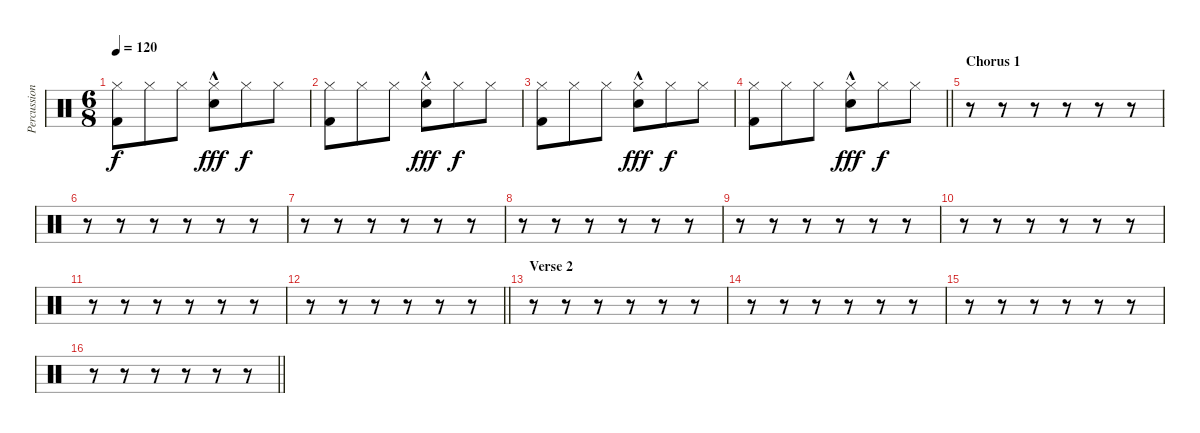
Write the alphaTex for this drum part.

\track ("Percussion" "Percussion") {mute instrument percussion}
\staff {score}
\articulation defaults
\ts (6 8)
\tempo 120
\clef neutral
\ks c
("Kick (hit) 2" "Hi-Hat (closed)").8{dy f} "Hi-Hat (closed)".8 "Hi-Hat (closed)".8 ("Snare (hit) 2"{hac} "Hi-Hat (closed)").8{dy fff} "Hi-Hat (closed)".8{dy f} "Hi-Hat (closed)".8 |
("Kick (hit) 2" "Hi-Hat (closed)").8 "Hi-Hat (closed)".8 "Hi-Hat (closed)".8 ("Snare (hit) 2"{hac} "Hi-Hat (closed)").8{dy fff} "Hi-Hat (closed)".8{dy f} "Hi-Hat (closed)".8 |
("Kick (hit) 2" "Hi-Hat (closed)").8 "Hi-Hat (closed)".8 "Hi-Hat (closed)".8 ("Snare (hit) 2"{hac} "Hi-Hat (closed)").8{dy fff} "Hi-Hat (closed)".8{dy f} "Hi-Hat (closed)".8 |
\barLineRight lightlight
("Kick (hit) 2" "Hi-Hat (closed)").8 "Hi-Hat (closed)".8 "Hi-Hat (closed)".8 ("Snare (hit) 2"{hac} "Hi-Hat (closed)").8{dy fff} "Hi-Hat (closed)".8{dy f} "Hi-Hat (closed)".8 |
\section ("" "Chorus 1")
r.8 r.8 r.8 r.8 r.8 r.8 |
r.8 r.8 r.8 r.8 r.8 r.8 |
r.8 r.8 r.8 r.8 r.8 r.8 |
r.8 r.8 r.8 r.8 r.8 r.8 |
r.8 r.8 r.8 r.8 r.8 r.8 |
r.8 r.8 r.8 r.8 r.8 r.8 |
r.8 r.8 r.8 r.8 r.8 r.8 |
\barLineRight lightlight
r.8 r.8 r.8 r.8 r.8 r.8 |
\section ("" "Verse 2")
r.8 r.8 r.8 r.8 r.8 r.8 |
r.8 r.8 r.8 r.8 r.8 r.8 |
r.8 r.8 r.8 r.8 r.8 r.8 |
\barLineRight lightlight
r.8 r.8 r.8 r.8 r.8 r.8
